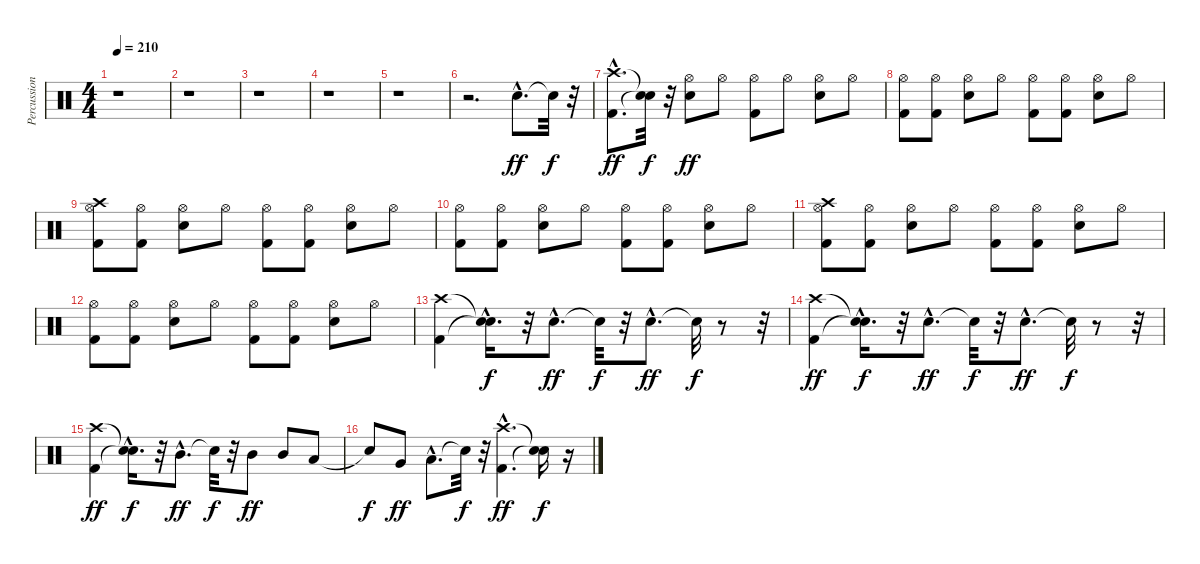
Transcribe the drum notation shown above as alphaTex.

\track ("Percussions" "Percussion") {instrument percussion}
\staff {score}
\articulation defaults
\ts (4 4)
\tempo 210
\clef neutral
\ks c
r.1{dy ff} |
r.1 |
r.1 |
r.1 |
r.1 |
r.2{d} "Snare (hit) 2"{hac}.8{d} "Snare (hit)"{t}.32{dy f} r.32 |
("Kick (hit) 2"{hac} "Crash high (hit)"{hac}).8{d dy ff} ("Snare (hit)"{t} "Snare (hit)"{t}).32{dy f} r.32 ("Snare (hit) 2" "Hi-Hat (open)").8{dy ff} "Hi-Hat (open)".8 ("Kick (hit) 2" "Hi-Hat (open)").8 "Hi-Hat (open)".8 ("Snare (hit) 2" "Hi-Hat (open)").8 "Hi-Hat (open)".8 |
("Kick (hit) 2" "Hi-Hat (open)").8 ("Kick (hit) 2" "Hi-Hat (open)").8 ("Snare (hit) 2" "Hi-Hat (open)").8 "Hi-Hat (open)".8 ("Kick (hit) 2" "Hi-Hat (open)").8 ("Kick (hit) 2" "Hi-Hat (open)").8 ("Snare (hit) 2" "Hi-Hat (open)").8 "Hi-Hat (open)".8 |
("Kick (hit) 2" "Hi-Hat (open)" "Crash high (hit)").8 ("Kick (hit) 2" "Hi-Hat (open)").8 ("Snare (hit) 2" "Hi-Hat (open)").8 "Hi-Hat (open)".8 ("Kick (hit) 2" "Hi-Hat (open)").8 ("Kick (hit) 2" "Hi-Hat (open)").8 ("Snare (hit) 2" "Hi-Hat (open)").8 "Hi-Hat (open)".8 |
("Kick (hit) 2" "Hi-Hat (open)").8 ("Kick (hit) 2" "Hi-Hat (open)").8 ("Snare (hit) 2" "Hi-Hat (open)").8 "Hi-Hat (open)".8 ("Kick (hit) 2" "Hi-Hat (open)").8 ("Kick (hit) 2" "Hi-Hat (open)").8 ("Snare (hit) 2" "Hi-Hat (open)").8 "Hi-Hat (open)".8 |
("Kick (hit) 2" "Hi-Hat (open)" "Crash high (hit)").8 ("Kick (hit) 2" "Hi-Hat (open)").8 ("Snare (hit) 2" "Hi-Hat (open)").8 "Hi-Hat (open)".8 ("Kick (hit) 2" "Hi-Hat (open)").8 ("Kick (hit) 2" "Hi-Hat (open)").8 ("Snare (hit) 2" "Hi-Hat (open)").8 "Hi-Hat (open)".8 |
("Kick (hit) 2" "Hi-Hat (open)").8 ("Kick (hit) 2" "Hi-Hat (open)").8 ("Snare (hit) 2" "Hi-Hat (open)").8 "Hi-Hat (open)".8 ("Kick (hit) 2" "Hi-Hat (open)").8 ("Kick (hit) 2" "Hi-Hat (open)").8 ("Snare (hit) 2" "Hi-Hat (open)").8 "Hi-Hat (open)".8 |
("Kick (hit) 2" "Crash high (hit)").4 ("Snare (hit)"{hac t} "Snare (hit)"{hac t}).16{d dy f} r.32 "Snare (hit) 2"{hac}.8{d dy ff} "Snare (hit)"{t}.32{dy f} r.32 "Snare (hit) 2"{hac}.8{d dy ff} "Snare (hit)"{t}.32{dy f} r.8 r.32 |
("Kick (hit) 2" "Crash high (hit)").4{dy ff} ("Snare (hit)"{hac t} "Snare (hit)"{hac t}).16{d dy f} r.32 "Snare (hit) 2"{hac}.8{d dy ff} "Snare (hit)"{t}.32{dy f} r.32 "Snare (hit) 2"{hac}.8{d dy ff} "Snare (hit)"{t}.32{dy f} r.8 r.32 |
("Kick (hit) 2" "Crash high (hit)").4{dy ff} ("Snare (hit)"{hac t} "Snare (hit)"{hac t}).16{d dy f} r.32 "Mid Tom (hit)"{hac}.8{d dy ff} "Snare (hit)"{t}.32{dy f} r.32 "Mid Tom (hit)".8{dy ff} "Mid Tom (hit)".8 "Low Tom (hit)".8 |
"Snare (hit)"{t}.8{dy f} "Very Low Tom (hit)".8{dy ff} "Low Floor Tom (hit)"{hac}.8{d} "Snare (hit)"{t}.32{dy f} r.32 ("Kick (hit) 2"{hac} "Crash high (hit)"{hac}).4{d dy ff} ("Snare (hit)"{t} "Snare (hit)"{t}).16{dy f} r.16
